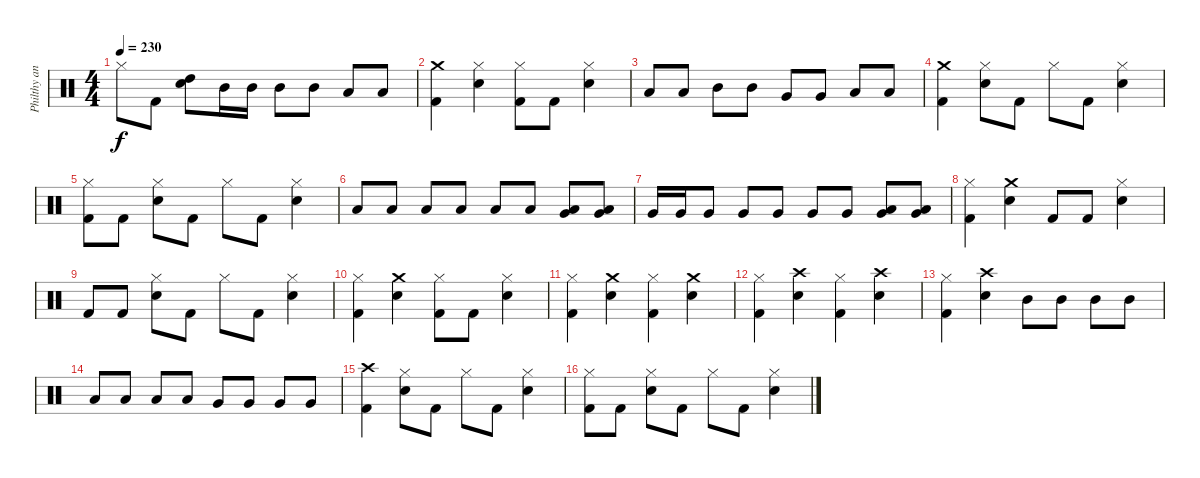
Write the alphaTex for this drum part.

\track ("Philthy animal Taylor" "Philthy an") {instrument percussion}
\staff {score}
\articulation defaults
\ts (4 4)
\tempo 230
\clef neutral
\ks c "Hi-Hat (closed)".8{dy f} "Kick (hit) 2".8
("High Tom (hit)" "Snare (hit) 2").8 "Mid Tom (hit)".16 "Mid Tom (hit)".16 "Mid Tom (hit)".8 "Mid Tom (hit)".8 "Low Tom (hit)".8 "Low Tom (hit)".8 |
("Crash medium (hit)" "Kick (hit) 2").4 ("Hi-Hat (closed)" "Snare (hit) 2").4 ("Hi-Hat (closed)" "Kick (hit) 2").8 "Kick (hit) 2".8 ("Hi-Hat (closed)" "Snare (hit) 2").4 |
"Low Tom (hit)".8 "Low Tom (hit)".8 "Mid Tom (hit)".8 "Mid Tom (hit)".8 "Very Low Tom (hit)".8 "Very Low Tom (hit)".8 "Low Floor Tom (hit)".8 "Low Floor Tom (hit)".8 |
("Crash medium (hit)" "Kick (hit) 2").4 ("Hi-Hat (closed)" "Snare (hit) 2").8 "Kick (hit) 2".8 "Hi-Hat (closed)".8 "Kick (hit) 2".8 ("Hi-Hat (closed)" "Snare (hit) 2").4 |
("Hi-Hat (closed)" "Kick (hit) 2").8 "Kick (hit) 2".8 ("Hi-Hat (closed)" "Snare (hit) 2").8 "Kick (hit) 2".8 "Hi-Hat (closed)".8 "Kick (hit) 2".8 ("Hi-Hat (closed)" "Snare (hit) 2").4 |
"Low Tom (hit)".8 "Low Tom (hit)".8 "Low Tom (hit)".8 "Low Tom (hit)".8 "Low Tom (hit)".8 "Low Tom (hit)".8 ("Low Tom (hit)" "Very Low Tom (hit)").8 ("Low Tom (hit)" "Very Low Tom (hit)").8 |
"Very Low Tom (hit)".16 "Very Low Tom (hit)".16 "Very Low Tom (hit)".8 "Very Low Tom (hit)".8 "Very Low Tom (hit)".8 "Very Low Tom (hit)".8 "Very Low Tom (hit)".8 ("Very Low Tom (hit)" "Low Floor Tom (hit)").8 ("Very Low Tom (hit)" "Low Floor Tom (hit)").8 |
("Hi-Hat (closed)" "Kick (hit) 2").4 ("Crash medium (hit)" "Snare (hit) 2").4 "Kick (hit) 2".8 "Kick (hit) 2".8 ("Hi-Hat (closed)" "Snare (hit) 2").4 |
"Kick (hit) 2".8 "Kick (hit) 2".8 ("Hi-Hat (closed)" "Snare (hit) 2").8 "Kick (hit) 2".8 "Hi-Hat (closed)".8 "Kick (hit) 2".8 ("Hi-Hat (closed)" "Snare (hit) 2").4 |
("Hi-Hat (closed)" "Kick (hit) 2").4 ("Crash medium (hit)" "Snare (hit) 2").4 ("Hi-Hat (closed)" "Kick (hit) 2").8 "Kick (hit) 2".8 ("Hi-Hat (closed)" "Snare (hit) 2").4 |
("Hi-Hat (closed)" "Kick (hit) 2").4 ("Crash medium (hit)" "Snare (hit) 2").4 ("Hi-Hat (closed)" "Kick (hit) 2").4 ("Crash medium (hit)" "Snare (hit) 2").4 |
("Hi-Hat (closed)" "Kick (hit) 2").4 ("Crash high (hit)" "Snare (hit) 2").4 ("Hi-Hat (closed)" "Kick (hit) 2").4 ("Crash high (hit)" "Snare (hit) 2").4 |
("Hi-Hat (closed)" "Kick (hit) 2").4 ("Crash high (hit)" "Snare (hit) 2").4 "Mid Tom (hit)".8 "Mid Tom (hit)".8 "Mid Tom (hit)".8 "Mid Tom (hit)".8 |
"Low Tom (hit)".8 "Low Tom (hit)".8 "Low Tom (hit)".8 "Low Tom (hit)".8 "Very Low Tom (hit)".8 "Very Low Tom (hit)".8 "Very Low Tom (hit)".8 "Very Low Tom (hit)".8 |
("Crash high (hit)" "Kick (hit) 2").4 ("Hi-Hat (closed)" "Snare (hit) 2").8 "Kick (hit) 2".8 "Hi-Hat (closed)".8 "Kick (hit) 2".8 ("Hi-Hat (closed)" "Snare (hit) 2").4 |
("Hi-Hat (closed)" "Kick (hit) 2").8 "Kick (hit) 2".8 ("Hi-Hat (closed)" "Snare (hit) 2").8 "Kick (hit) 2".8 "Hi-Hat (closed)".8 "Kick (hit) 2".8 ("Hi-Hat (closed)" "Snare (hit) 2").4
